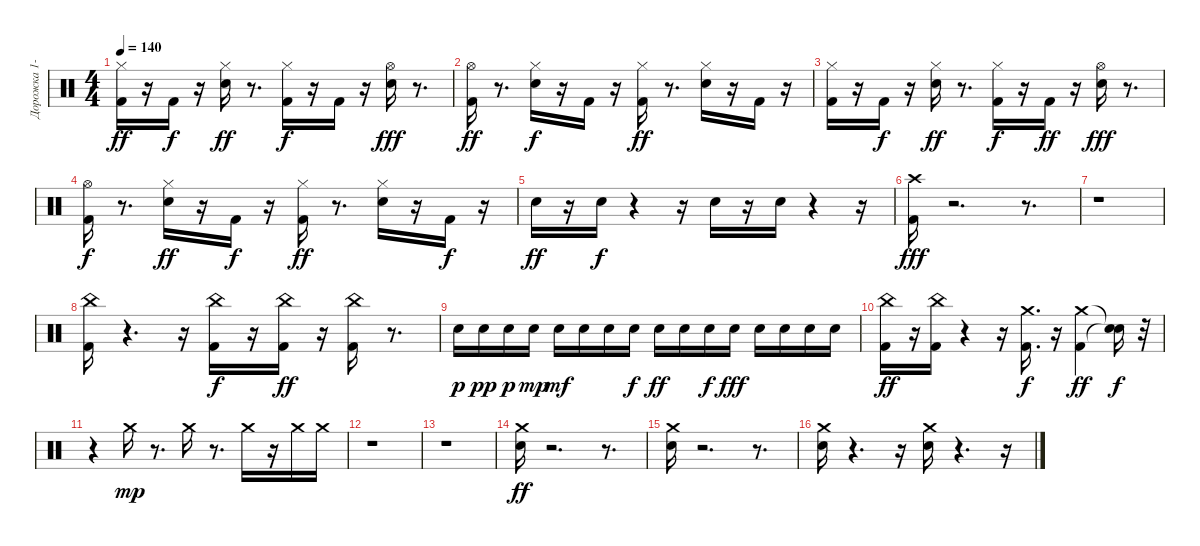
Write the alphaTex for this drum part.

\track ("Дорожка 1-2" "Дорожка 1-") {instrument percussion}
\staff {score}
\articulation defaults
\ts (4 4)
\tempo 140
\clef neutral
\ks c
("Hi-Hat (closed)" "Kick (hit) 2").16{dy ff} r.16 "Kick (hit) 2".16{dy f} r.16 ("Hi-Hat (closed)" "Electric Snare (hit)").16{dy ff} r.8{d} ("Hi-Hat (closed)" "Kick (hit) 2").16{dy f} r.16 "Kick (hit) 2".16 r.16 ("Electric Snare (hit)" "Hi-Hat (open)").16{dy fff} r.8{d} |
("Kick (hit) 2" "Hi-Hat (open)").16{dy ff} r.8{d} ("Electric Snare (hit)" "Hi-Hat (closed)").16{dy f} r.16 "Kick (hit) 2".16 r.16 ("Hi-Hat (closed)" "Kick (hit) 2").16{dy ff} r.8{d} ("Hi-Hat (closed)" "Electric Snare (hit)").16 r.16 "Kick (hit) 2".16 r.16 |
("Kick (hit) 2" "Hi-Hat (closed)").16 r.16 "Kick (hit) 2".16{dy f} r.16 ("Electric Snare (hit)" "Hi-Hat (closed)").16{dy ff} r.8{d} ("Kick (hit) 2" "Hi-Hat (closed)").16{dy f} r.16 "Kick (hit) 2".16{dy ff} r.16 ("Hi-Hat (open)" "Electric Snare (hit)").16{dy fff} r.8{d} |
("Kick (hit) 2" "Hi-Hat (open)").16{dy f} r.8{d} ("Electric Snare (hit)" "Hi-Hat (closed)").16{dy ff} r.16 "Kick (hit) 2".16{dy f} r.16 ("Hi-Hat (closed)" "Kick (hit) 2").16{dy ff} r.8{d} ("Hi-Hat (closed)" "Electric Snare (hit)").16 r.16 "Kick (hit) 2".16{dy f} r.16 |
"Electric Snare (hit)".16{dy ff} r.16 "Electric Snare (hit)".16{dy f} r.4 r.16 "Electric Snare (hit)".16 r.16 "Electric Snare (hit)".16 r.4 r.16 |
("Crash high (hit)" "Kick (hit) 2").16{dy fff} r.2{d} r.8{d} |
r.1 |
("China (hit)" "Kick (hit) 2").16 r.4{d} r.16 ("Kick (hit) 2" "China (hit)").16{dy f} r.16 ("Kick (hit) 2" "China (hit)").16{dy ff} r.16 ("Kick (hit) 2" "China (hit)").16 r.8{d} |
"Electric Snare (hit)".16{dy p} "Electric Snare (hit)".16{dy pp} "Electric Snare (hit)".16{dy p} "Electric Snare (hit)".16{dy mp} "Electric Snare (hit)".16{dy mf} "Electric Snare (hit)".16 "Electric Snare (hit)".16 "Electric Snare (hit)".16{dy f} "Electric Snare (hit)".16{dy ff} "Electric Snare (hit)".16 "Electric Snare (hit)".16{dy f} "Electric Snare (hit)".16{dy fff} "Electric Snare (hit)".16 "Electric Snare (hit)".16 "Electric Snare (hit)".16 "Electric Snare (hit)".16 |
("China (hit)" "Kick (hit) 2").16{dy ff} r.16 ("China (hit)" "Kick (hit) 2").16 r.4 r.16 ("Kick (hit) 2" "Crash medium (hit)").16{d dy f} r.16 ("Kick (hit) 2" "Crash medium (hit)").4{dy ff} ("Snare (hit)"{t} "Snare (hit)"{t}).16{dy f} r.32 |
r.4 "Crash medium (hit)".16{dy mp} r.8{d} "Crash medium (hit)".16 r.8{d} "Crash medium (hit)".16 r.16 "Crash medium (hit)".16 "Crash medium (hit)".16 |
r.1 |
r.1 |
("Crash medium (hit)" "Electric Snare (hit)").16{dy ff} r.2{d} r.8{d} |
("Crash medium (hit)" "Electric Snare (hit)").16 r.2{d} r.8{d} |
("Crash medium (hit)" "Electric Snare (hit)").16 r.4{d} r.16 ("Crash medium (hit)" "Electric Snare (hit)").16 r.4{d} r.16
